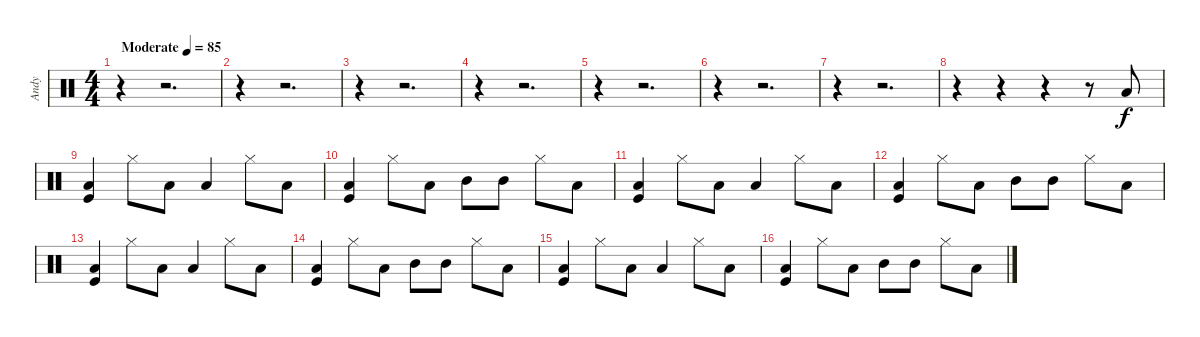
\track ("Andy" "Andy") {instrument percussion}
\staff {score}
\articulation defaults
\ts (4 4)
\tempo (85 "Moderate")
\clef neutral
\ks c
r.4{dy f} r.2{d} |
r.4 r.2{d} |
r.4 r.2{d} |
r.4 r.2{d} |
r.4 r.2{d} |
r.4 r.2{d} |
r.4 r.2{d} |
r.4 r.4 r.4 r.8 "Low Tom (hit)".8 |
("Low Tom (hit)" "Kick (hit)").4 "Hi-Hat (closed)".8 "Low Tom (hit)".8 "Low Tom (hit)".4 "Hi-Hat (closed)".8 "Low Tom (hit)".8 |
("Low Tom (hit)" "Kick (hit)").4 "Hi-Hat (closed)".8 "Low Tom (hit)".8 "Mid Tom (hit)".8 "Mid Tom (hit)".8 "Hi-Hat (closed)".8 "Low Tom (hit)".8 |
("Low Tom (hit)" "Kick (hit)").4 "Hi-Hat (closed)".8 "Low Tom (hit)".8 "Low Tom (hit)".4 "Hi-Hat (closed)".8 "Low Tom (hit)".8 |
("Low Tom (hit)" "Kick (hit)").4 "Hi-Hat (closed)".8 "Low Tom (hit)".8 "Mid Tom (hit)".8 "Mid Tom (hit)".8 "Hi-Hat (closed)".8 "Low Tom (hit)".8 |
("Low Tom (hit)" "Kick (hit)").4 "Hi-Hat (closed)".8 "Low Tom (hit)".8 "Low Tom (hit)".4 "Hi-Hat (closed)".8 "Low Tom (hit)".8 |
("Low Tom (hit)" "Kick (hit)").4 "Hi-Hat (closed)".8 "Low Tom (hit)".8 "Mid Tom (hit)".8 "Mid Tom (hit)".8 "Hi-Hat (closed)".8 "Low Tom (hit)".8 |
("Low Tom (hit)" "Kick (hit)").4 "Hi-Hat (closed)".8 "Low Tom (hit)".8 "Low Tom (hit)".4 "Hi-Hat (closed)".8 "Low Tom (hit)".8 |
("Low Tom (hit)" "Kick (hit)").4 "Hi-Hat (closed)".8 "Low Tom (hit)".8 "Mid Tom (hit)".8 "Mid Tom (hit)".8 "Hi-Hat (closed)".8 "Low Tom (hit)".8
